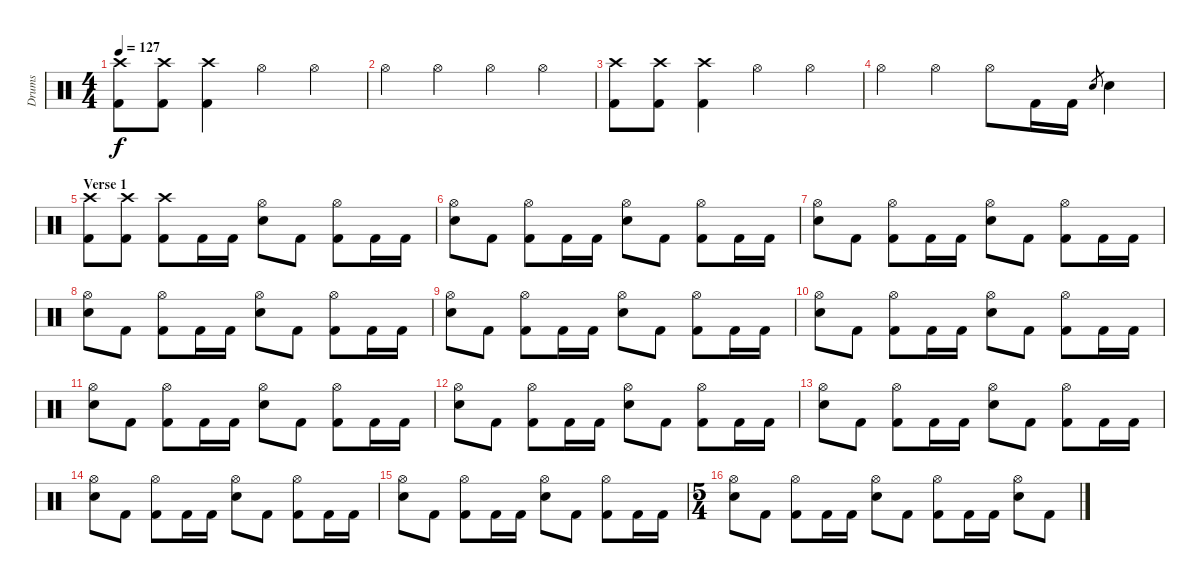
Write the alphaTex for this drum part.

\track ("Drums" "Drums") {instrument percussion}
\staff {score}
\articulation defaults
\ts (4 4)
\tempo 127
\clef neutral
\ks c
("Crash high (hit)" "Kick (hit) 2").8{dy f} ("Crash high (hit)" "Kick (hit) 2").8 ("Crash high (hit)" "Kick (hit) 2").4 "Hi-Hat (open)".4 "Hi-Hat (open)".4 |
"Hi-Hat (open)".4 "Hi-Hat (open)".4 "Hi-Hat (open)".4 "Hi-Hat (open)".4 |
("Crash high (hit)" "Kick (hit) 2").8 ("Crash high (hit)" "Kick (hit) 2").8 ("Crash high (hit)" "Kick (hit) 2").4 "Hi-Hat (open)".4 "Hi-Hat (open)".4 |
"Hi-Hat (open)".4 "Hi-Hat (open)".4 "Hi-Hat (open)".8 "Kick (hit) 2".16 "Kick (hit) 2".16 "Snare (hit) 2".8{gr} "Snare (hit) 2".4 |
\section ("" "Verse 1")
("Crash high (hit)" "Kick (hit) 2").8 ("Crash high (hit)" "Kick (hit) 2").8 ("Crash high (hit)" "Kick (hit) 2").8 "Kick (hit) 2".16 "Kick (hit) 2".16 ("Hi-Hat (open)" "Snare (hit) 2").8 "Kick (hit) 2".8 ("Hi-Hat (open)" "Kick (hit) 2").8 "Kick (hit) 2".16 "Kick (hit) 2".16 |
("Hi-Hat (open)" "Snare (hit) 2").8 "Kick (hit) 2".8 ("Hi-Hat (open)" "Kick (hit) 2").8 "Kick (hit) 2".16 "Kick (hit) 2".16 ("Hi-Hat (open)" "Snare (hit) 2").8 "Kick (hit) 2".8 ("Hi-Hat (open)" "Kick (hit) 2").8 "Kick (hit) 2".16 "Kick (hit) 2".16 |
("Hi-Hat (open)" "Snare (hit) 2").8 "Kick (hit) 2".8 ("Hi-Hat (open)" "Kick (hit) 2").8 "Kick (hit) 2".16 "Kick (hit) 2".16 ("Hi-Hat (open)" "Snare (hit) 2").8 "Kick (hit) 2".8 ("Hi-Hat (open)" "Kick (hit) 2").8 "Kick (hit) 2".16 "Kick (hit) 2".16 |
("Hi-Hat (open)" "Snare (hit) 2").8 "Kick (hit) 2".8 ("Hi-Hat (open)" "Kick (hit) 2").8 "Kick (hit) 2".16 "Kick (hit) 2".16 ("Hi-Hat (open)" "Snare (hit) 2").8 "Kick (hit) 2".8 ("Hi-Hat (open)" "Kick (hit) 2").8 "Kick (hit) 2".16 "Kick (hit) 2".16 |
("Hi-Hat (open)" "Snare (hit) 2").8 "Kick (hit) 2".8 ("Hi-Hat (open)" "Kick (hit) 2").8 "Kick (hit) 2".16 "Kick (hit) 2".16 ("Hi-Hat (open)" "Snare (hit) 2").8 "Kick (hit) 2".8 ("Hi-Hat (open)" "Kick (hit) 2").8 "Kick (hit) 2".16 "Kick (hit) 2".16 |
("Hi-Hat (open)" "Snare (hit) 2").8 "Kick (hit) 2".8 ("Hi-Hat (open)" "Kick (hit) 2").8 "Kick (hit) 2".16 "Kick (hit) 2".16 ("Hi-Hat (open)" "Snare (hit) 2").8 "Kick (hit) 2".8 ("Hi-Hat (open)" "Kick (hit) 2").8 "Kick (hit) 2".16 "Kick (hit) 2".16 |
("Hi-Hat (open)" "Snare (hit) 2").8 "Kick (hit) 2".8 ("Hi-Hat (open)" "Kick (hit) 2").8 "Kick (hit) 2".16 "Kick (hit) 2".16 ("Hi-Hat (open)" "Snare (hit) 2").8 "Kick (hit) 2".8 ("Hi-Hat (open)" "Kick (hit) 2").8 "Kick (hit) 2".16 "Kick (hit) 2".16 |
("Hi-Hat (open)" "Snare (hit) 2").8 "Kick (hit) 2".8 ("Hi-Hat (open)" "Kick (hit) 2").8 "Kick (hit) 2".16 "Kick (hit) 2".16 ("Hi-Hat (open)" "Snare (hit) 2").8 "Kick (hit) 2".8 ("Hi-Hat (open)" "Kick (hit) 2").8 "Kick (hit) 2".16 "Kick (hit) 2".16 |
("Hi-Hat (open)" "Snare (hit) 2").8 "Kick (hit) 2".8 ("Hi-Hat (open)" "Kick (hit) 2").8 "Kick (hit) 2".16 "Kick (hit) 2".16 ("Hi-Hat (open)" "Snare (hit) 2").8 "Kick (hit) 2".8 ("Hi-Hat (open)" "Kick (hit) 2").8 "Kick (hit) 2".16 "Kick (hit) 2".16 |
("Hi-Hat (open)" "Snare (hit) 2").8 "Kick (hit) 2".8 ("Hi-Hat (open)" "Kick (hit) 2").8 "Kick (hit) 2".16 "Kick (hit) 2".16 ("Hi-Hat (open)" "Snare (hit) 2").8 "Kick (hit) 2".8 ("Hi-Hat (open)" "Kick (hit) 2").8 "Kick (hit) 2".16 "Kick (hit) 2".16 |
("Hi-Hat (open)" "Snare (hit) 2").8 "Kick (hit) 2".8 ("Hi-Hat (open)" "Kick (hit) 2").8 "Kick (hit) 2".16 "Kick (hit) 2".16 ("Hi-Hat (open)" "Snare (hit) 2").8 "Kick (hit) 2".8 ("Hi-Hat (open)" "Kick (hit) 2").8 "Kick (hit) 2".16 "Kick (hit) 2".16 |
\ts (5 4)
("Hi-Hat (open)" "Snare (hit) 2").8 "Kick (hit) 2".8 ("Hi-Hat (open)" "Kick (hit) 2").8 "Kick (hit) 2".16 "Kick (hit) 2".16 ("Hi-Hat (open)" "Snare (hit) 2").8 "Kick (hit) 2".8 ("Hi-Hat (open)" "Kick (hit) 2").8 "Kick (hit) 2".16 "Kick (hit) 2".16 ("Hi-Hat (open)" "Snare (hit) 2").8 "Kick (hit) 2".8
